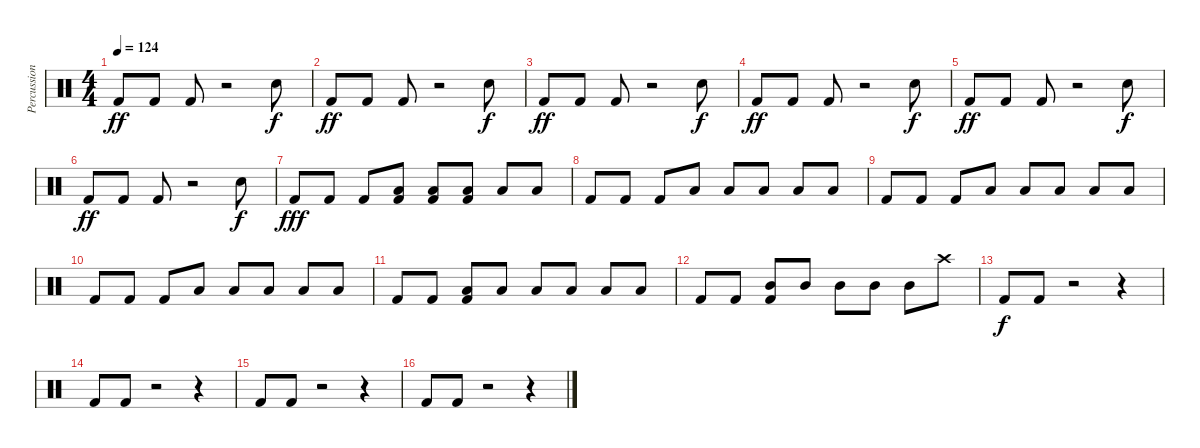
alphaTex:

\track ("Percussion" "Percussion") {instrument percussion}
\staff {score}
\articulation defaults
\ts (4 4)
\tempo 124
\clef neutral
\ks c "Kick (hit) 2".8{dy ff} "Kick (hit) 2".8 "Kick (hit) 2".8
r.2 "Electric Snare (hit)".8{dy f} |
"Kick (hit) 2".8{dy ff} "Kick (hit) 2".8 "Kick (hit) 2".8 r.2 "Electric Snare (hit)".8{dy f} |
"Kick (hit) 2".8{dy ff} "Kick (hit) 2".8 "Kick (hit) 2".8 r.2 "Electric Snare (hit)".8{dy f} |
"Kick (hit) 2".8{dy ff} "Kick (hit) 2".8 "Kick (hit) 2".8 r.2 "Electric Snare (hit)".8{dy f} |
"Kick (hit) 2".8{dy ff} "Kick (hit) 2".8 "Kick (hit) 2".8 r.2 "Electric Snare (hit)".8{dy f} |
"Kick (hit) 2".8{dy ff} "Kick (hit) 2".8 "Kick (hit) 2".8 r.2 "Electric Snare (hit)".8{dy f} |
"Kick (hit) 2".8{dy fff} "Kick (hit) 2".8 "Kick (hit) 2".8 ("Kick (hit) 2" "Low Floor Tom (hit)").8 ("Kick (hit) 2" "Low Floor Tom (hit)").8 ("Kick (hit) 2" "Low Floor Tom (hit)").8 "Low Floor Tom (hit)".8 "Low Floor Tom (hit)".8 |
"Kick (hit) 2".8 "Kick (hit) 2".8 "Kick (hit) 2".8 "Low Floor Tom (hit)".8 "Low Floor Tom (hit)".8 "Low Floor Tom (hit)".8 "Low Floor Tom (hit)".8 "Low Floor Tom (hit)".8 |
"Kick (hit) 2".8 "Kick (hit) 2".8 "Kick (hit) 2".8 "Low Floor Tom (hit)".8 "Low Floor Tom (hit)".8 "Low Floor Tom (hit)".8 "Low Floor Tom (hit)".8 "Low Floor Tom (hit)".8 |
"Kick (hit) 2".8 "Kick (hit) 2".8 "Kick (hit) 2".8 "Low Floor Tom (hit)".8 "Low Floor Tom (hit)".8 "Low Floor Tom (hit)".8 "Low Floor Tom (hit)".8 "Low Floor Tom (hit)".8 |
"Kick (hit) 2".8 "Kick (hit) 2".8 ("Kick (hit) 2" "Low Tom (hit)").8 "Low Tom (hit)".8 "Low Tom (hit)".8 "Low Tom (hit)".8 "Low Tom (hit)".8 "Low Tom (hit)".8 |
"Kick (hit) 2".8 "Kick (hit) 2".8 ("Kick (hit) 2" "Mid Tom (hit)").8 "Mid Tom (hit)".8 "Mid Tom (hit)".8 "Mid Tom (hit)".8 "Mid Tom (hit)".8 "Crash high (hit)".8 |
"Kick (hit) 2".8{dy f} "Kick (hit) 2".8 r.2 r.4 |
"Kick (hit) 2".8 "Kick (hit) 2".8 r.2 r.4 |
"Kick (hit) 2".8 "Kick (hit) 2".8 r.2 r.4 |
"Kick (hit) 2".8 "Kick (hit) 2".8 r.2 r.4
